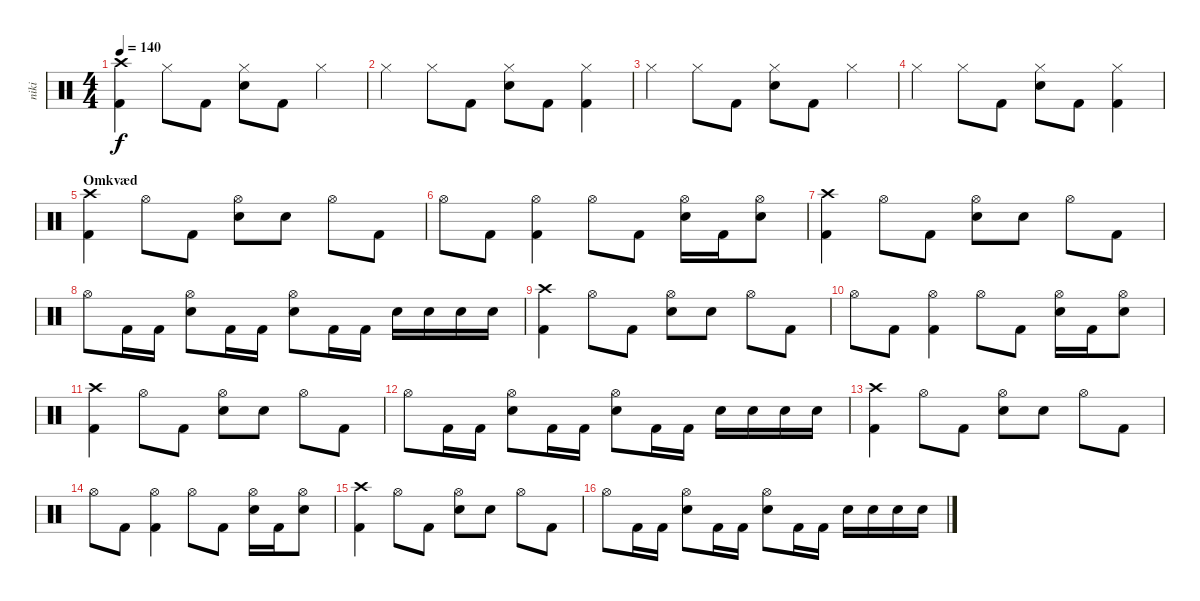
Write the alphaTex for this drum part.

\track ("niki" "niki") {instrument percussion}
\staff {score}
\articulation defaults
\ts (4 4)
\tempo 140
\clef neutral
\ks c
("Crash high (hit)" "Kick (hit) 2").4{dy f} "Hi-Hat (closed)".8 "Kick (hit) 2".8 ("Hi-Hat (closed)" "Snare (hit) 2").8 "Kick (hit) 2".8 "Hi-Hat (closed)".4 |
"Hi-Hat (closed)".4 "Hi-Hat (closed)".8 "Kick (hit) 2".8 ("Hi-Hat (closed)" "Snare (hit) 2").8 "Kick (hit) 2".8 ("Hi-Hat (closed)" "Kick (hit) 2").4 |
"Hi-Hat (closed)".4 "Hi-Hat (closed)".8 "Kick (hit) 2".8 ("Hi-Hat (closed)" "Snare (hit) 2").8 "Kick (hit) 2".8 "Hi-Hat (closed)".4 |
"Hi-Hat (closed)".4 "Hi-Hat (closed)".8 "Kick (hit) 2".8 ("Hi-Hat (closed)" "Snare (hit) 2").8 "Kick (hit) 2".8 ("Hi-Hat (closed)" "Kick (hit) 2").4 |
\section ("" "Omkvæd")
("Crash high (hit)" "Kick (hit) 2").4 "Hi-Hat (open)".8 "Kick (hit) 2".8 ("Hi-Hat (open)" "Snare (hit) 2").8 "Snare (hit) 2".8 "Hi-Hat (open)".8 "Kick (hit) 2".8 |
"Hi-Hat (open)".8 "Kick (hit) 2".8 ("Hi-Hat (open)" "Kick (hit) 2").4 "Hi-Hat (open)".8 "Kick (hit) 2".8 ("Hi-Hat (open)" "Snare (hit) 2").16 "Kick (hit) 2".16 ("Hi-Hat (open)" "Snare (hit) 2").8 |
("Crash high (hit)" "Kick (hit) 2").4 "Hi-Hat (open)".8 "Kick (hit) 2".8 ("Hi-Hat (open)" "Snare (hit) 2").8 "Snare (hit) 2".8 "Hi-Hat (open)".8 "Kick (hit) 2".8 |
"Hi-Hat (open)".8 "Kick (hit) 2".16 "Kick (hit) 2".16 ("Hi-Hat (open)" "Snare (hit) 2").8 "Kick (hit) 2".16 "Kick (hit) 2".16 ("Hi-Hat (open)" "Snare (hit) 2").8 "Kick (hit) 2".16 "Kick (hit) 2".16 "Snare (hit) 2".16 "Snare (hit) 2".16 "Snare (hit) 2".16 "Snare (hit) 2".16 |
("Crash high (hit)" "Kick (hit) 2").4 "Hi-Hat (open)".8 "Kick (hit) 2".8 ("Hi-Hat (open)" "Snare (hit) 2").8 "Snare (hit) 2".8 "Hi-Hat (open)".8 "Kick (hit) 2".8 |
"Hi-Hat (open)".8 "Kick (hit) 2".8 ("Hi-Hat (open)" "Kick (hit) 2").4 "Hi-Hat (open)".8 "Kick (hit) 2".8 ("Hi-Hat (open)" "Snare (hit) 2").16 "Kick (hit) 2".16 ("Hi-Hat (open)" "Snare (hit) 2").8 |
("Crash high (hit)" "Kick (hit) 2").4 "Hi-Hat (open)".8 "Kick (hit) 2".8 ("Hi-Hat (open)" "Snare (hit) 2").8 "Snare (hit) 2".8 "Hi-Hat (open)".8 "Kick (hit) 2".8 |
"Hi-Hat (open)".8 "Kick (hit) 2".16 "Kick (hit) 2".16 ("Hi-Hat (open)" "Snare (hit) 2").8 "Kick (hit) 2".16 "Kick (hit) 2".16 ("Hi-Hat (open)" "Snare (hit) 2").8 "Kick (hit) 2".16 "Kick (hit) 2".16 "Snare (hit) 2".16 "Snare (hit) 2".16 "Snare (hit) 2".16 "Snare (hit) 2".16 |
("Crash high (hit)" "Kick (hit) 2").4 "Hi-Hat (open)".8 "Kick (hit) 2".8 ("Hi-Hat (open)" "Snare (hit) 2").8 "Snare (hit) 2".8 "Hi-Hat (open)".8 "Kick (hit) 2".8 |
"Hi-Hat (open)".8 "Kick (hit) 2".8 ("Hi-Hat (open)" "Kick (hit) 2").4 "Hi-Hat (open)".8 "Kick (hit) 2".8 ("Hi-Hat (open)" "Snare (hit) 2").16 "Kick (hit) 2".16 ("Hi-Hat (open)" "Snare (hit) 2").8 |
("Crash high (hit)" "Kick (hit) 2").4 "Hi-Hat (open)".8 "Kick (hit) 2".8 ("Hi-Hat (open)" "Snare (hit) 2").8 "Snare (hit) 2".8 "Hi-Hat (open)".8 "Kick (hit) 2".8 |
"Hi-Hat (open)".8 "Kick (hit) 2".16 "Kick (hit) 2".16 ("Hi-Hat (open)" "Snare (hit) 2").8 "Kick (hit) 2".16 "Kick (hit) 2".16 ("Hi-Hat (open)" "Snare (hit) 2").8 "Kick (hit) 2".16 "Kick (hit) 2".16 "Snare (hit) 2".16 "Snare (hit) 2".16 "Snare (hit) 2".16 "Snare (hit) 2".16
